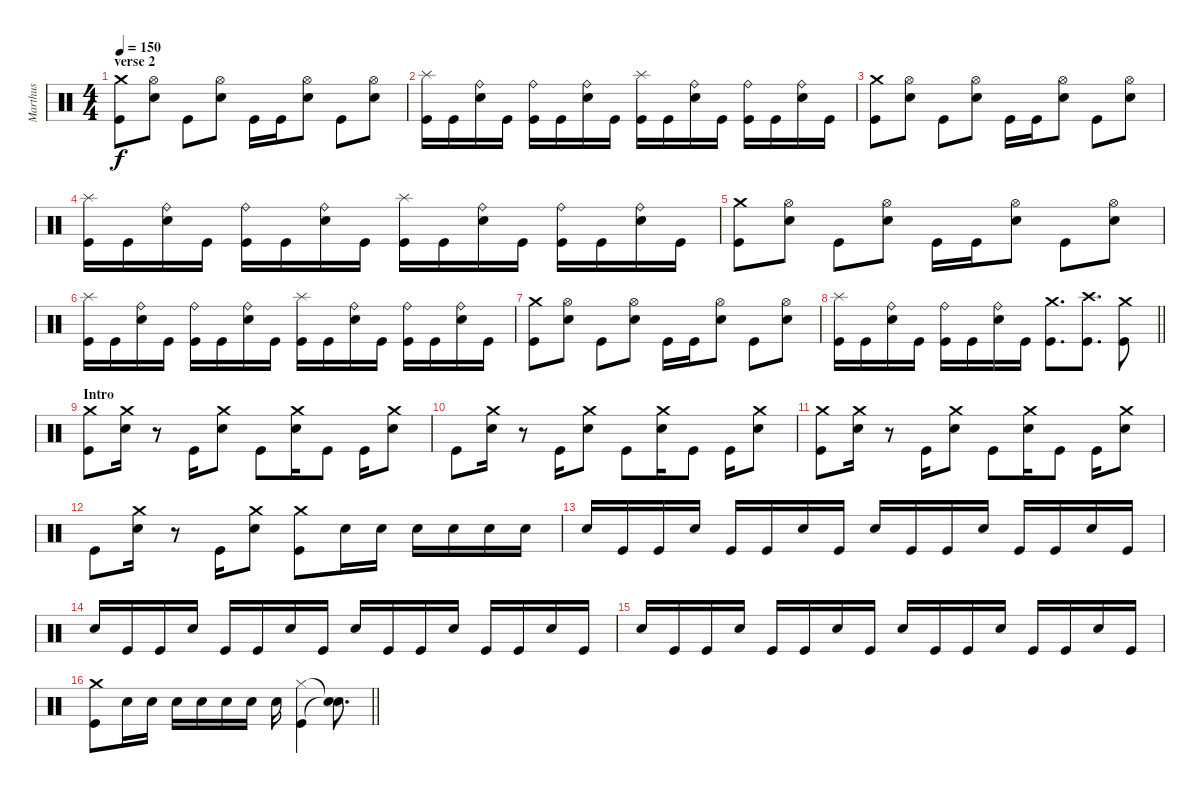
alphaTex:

\track ("Marthus" "Marthus") {instrument percussion}
\staff {score}
\articulation defaults
\ts (4 4)
\section ("" "verse 2")
\tempo 150
\clef neutral
\ks c
("Crash medium (hit)" "Kick (hit)").8{dy f} ("Hi-Hat (open)" "Snare (hit) 2").8 "Kick (hit)".8 ("Hi-Hat (open)" "Snare (hit) 2").8 "Kick (hit)".16 "Kick (hit)".16 ("Hi-Hat (open)" "Snare (hit) 2").8 "Kick (hit)".8 ("Hi-Hat (open)" "Snare (hit) 2").8 |
("Splash (hit)" "Kick (hit)").16 "Kick (hit)".16 ("Ride (bell)" "Snare (hit) 2").16 "Kick (hit)".16 ("Ride (bell)" "Kick (hit)").16 "Kick (hit)".16 ("Ride (bell)" "Snare (hit) 2").16 "Kick (hit)".16 ("Splash (hit)" "Kick (hit)").16 "Kick (hit)".16 ("Ride (bell)" "Snare (hit) 2").16 "Kick (hit)".16 ("Ride (bell)" "Kick (hit)").16 "Kick (hit)".16 ("Ride (bell)" "Snare (hit) 2").16 "Kick (hit)".16 |
("Crash medium (hit)" "Kick (hit)").8 ("Hi-Hat (open)" "Snare (hit) 2").8 "Kick (hit)".8 ("Hi-Hat (open)" "Snare (hit) 2").8 "Kick (hit)".16 "Kick (hit)".16 ("Hi-Hat (open)" "Snare (hit) 2").8 "Kick (hit)".8 ("Hi-Hat (open)" "Snare (hit) 2").8 |
("Splash (hit)" "Kick (hit)").16 "Kick (hit)".16 ("Ride (bell)" "Snare (hit) 2").16 "Kick (hit)".16 ("Ride (bell)" "Kick (hit)").16 "Kick (hit)".16 ("Ride (bell)" "Snare (hit) 2").16 "Kick (hit)".16 ("Splash (hit)" "Kick (hit)").16 "Kick (hit)".16 ("Ride (bell)" "Snare (hit) 2").16 "Kick (hit)".16 ("Ride (bell)" "Kick (hit)").16 "Kick (hit)".16 ("Ride (bell)" "Snare (hit) 2").16 "Kick (hit)".16 |
("Crash medium (hit)" "Kick (hit)").8 ("Hi-Hat (open)" "Snare (hit) 2").8 "Kick (hit)".8 ("Hi-Hat (open)" "Snare (hit) 2").8 "Kick (hit)".16 "Kick (hit)".16 ("Hi-Hat (open)" "Snare (hit) 2").8 "Kick (hit)".8 ("Hi-Hat (open)" "Snare (hit) 2").8 |
("Splash (hit)" "Kick (hit)").16 "Kick (hit)".16 ("Ride (bell)" "Snare (hit) 2").16 "Kick (hit)".16 ("Ride (bell)" "Kick (hit)").16 "Kick (hit)".16 ("Ride (bell)" "Snare (hit) 2").16 "Kick (hit)".16 ("Splash (hit)" "Kick (hit)").16 "Kick (hit)".16 ("Ride (bell)" "Snare (hit) 2").16 "Kick (hit)".16 ("Ride (bell)" "Kick (hit)").16 "Kick (hit)".16 ("Ride (bell)" "Snare (hit) 2").16 "Kick (hit)".16 |
("Crash medium (hit)" "Kick (hit)").8 ("Hi-Hat (open)" "Snare (hit) 2").8 "Kick (hit)".8 ("Hi-Hat (open)" "Snare (hit) 2").8 "Kick (hit)".16 "Kick (hit)".16 ("Hi-Hat (open)" "Snare (hit) 2").8 "Kick (hit)".8 ("Hi-Hat (open)" "Snare (hit) 2").8 |
\barLineRight lightlight
("Splash (hit)" "Kick (hit)").16 "Kick (hit)".16 ("Ride (bell)" "Snare (hit) 2").16 "Kick (hit)".16 ("Ride (bell)" "Kick (hit)").16 "Kick (hit)".16 ("Ride (bell)" "Snare (hit) 2").16 "Kick (hit)".16 ("Crash medium (hit)" "Kick (hit)").8{d} ("Crash high (hit)" "Kick (hit)").8{d} ("Crash medium (hit)" "Kick (hit)").8 |
\section ("" "Intro")
("Crash medium (hit)" "Kick (hit)").8 ("Crash medium (hit)" "Snare (hit) 2").16 r.8 "Kick (hit)".16 ("Crash medium (hit)" "Snare (hit) 2").8 "Kick (hit)".8 ("Crash medium (hit)" "Snare (hit) 2").16 "Kick (hit)".8 "Kick (hit)".16 ("Crash medium (hit)" "Snare (hit) 2").8 |
"Kick (hit)".8 ("Crash medium (hit)" "Snare (hit) 2").16 r.8 "Kick (hit)".16 ("Crash medium (hit)" "Snare (hit) 2").8 "Kick (hit)".8 ("Crash medium (hit)" "Snare (hit) 2").16 "Kick (hit)".8 "Kick (hit)".16 ("Crash medium (hit)" "Snare (hit) 2").8 |
("Crash medium (hit)" "Kick (hit)").8 ("Crash medium (hit)" "Snare (hit) 2").16 r.8 "Kick (hit)".16 ("Crash medium (hit)" "Snare (hit) 2").8 "Kick (hit)".8 ("Crash medium (hit)" "Snare (hit) 2").16 "Kick (hit)".8 "Kick (hit)".16 ("Crash medium (hit)" "Snare (hit) 2").8 |
"Kick (hit)".8 ("Crash medium (hit)" "Snare (hit) 2").16 r.8 "Kick (hit)".16 ("Crash medium (hit)" "Snare (hit) 2").8 ("Crash medium (hit)" "Kick (hit)").8 "Snare (hit) 2".16 "Snare (hit) 2".16 "Snare (hit) 2".16 "Snare (hit) 2".16 "Snare (hit) 2".16 "Snare (hit) 2".16 |
"Snare (hit) 2".16 "Kick (hit)".16 "Kick (hit)".16 "Snare (hit) 2".16 "Kick (hit)".16 "Kick (hit)".16 "Snare (hit) 2".16 "Kick (hit)".16 "Snare (hit) 2".16 "Kick (hit)".16 "Kick (hit)".16 "Snare (hit) 2".16 "Kick (hit)".16 "Kick (hit)".16 "Snare (hit) 2".16 "Kick (hit)".16 |
"Snare (hit) 2".16 "Kick (hit)".16 "Kick (hit)".16 "Snare (hit) 2".16 "Kick (hit)".16 "Kick (hit)".16 "Snare (hit) 2".16 "Kick (hit)".16 "Snare (hit) 2".16 "Kick (hit)".16 "Kick (hit)".16 "Snare (hit) 2".16 "Kick (hit)".16 "Kick (hit)".16 "Snare (hit) 2".16 "Kick (hit)".16 |
"Snare (hit) 2".16 "Kick (hit)".16 "Kick (hit)".16 "Snare (hit) 2".16 "Kick (hit)".16 "Kick (hit)".16 "Snare (hit) 2".16 "Kick (hit)".16 "Snare (hit) 2".16 "Kick (hit)".16 "Kick (hit)".16 "Snare (hit) 2".16 "Kick (hit)".16 "Kick (hit)".16 "Snare (hit) 2".16 "Kick (hit)".16 |
\barLineRight lightlight
("Crash medium (hit)" "Kick (hit)").8 "Snare (hit) 2".16 "Snare (hit) 2".16 "Snare (hit) 2".16 "Snare (hit) 2".16 "Snare (hit) 2".16 "Snare (hit) 2".16 "Snare (hit) 2".16 ("Kick (hit)" "Hi-Hat (closed)").4 ("Snare (hit)"{t} "Snare (hit)"{t}).8{d}
